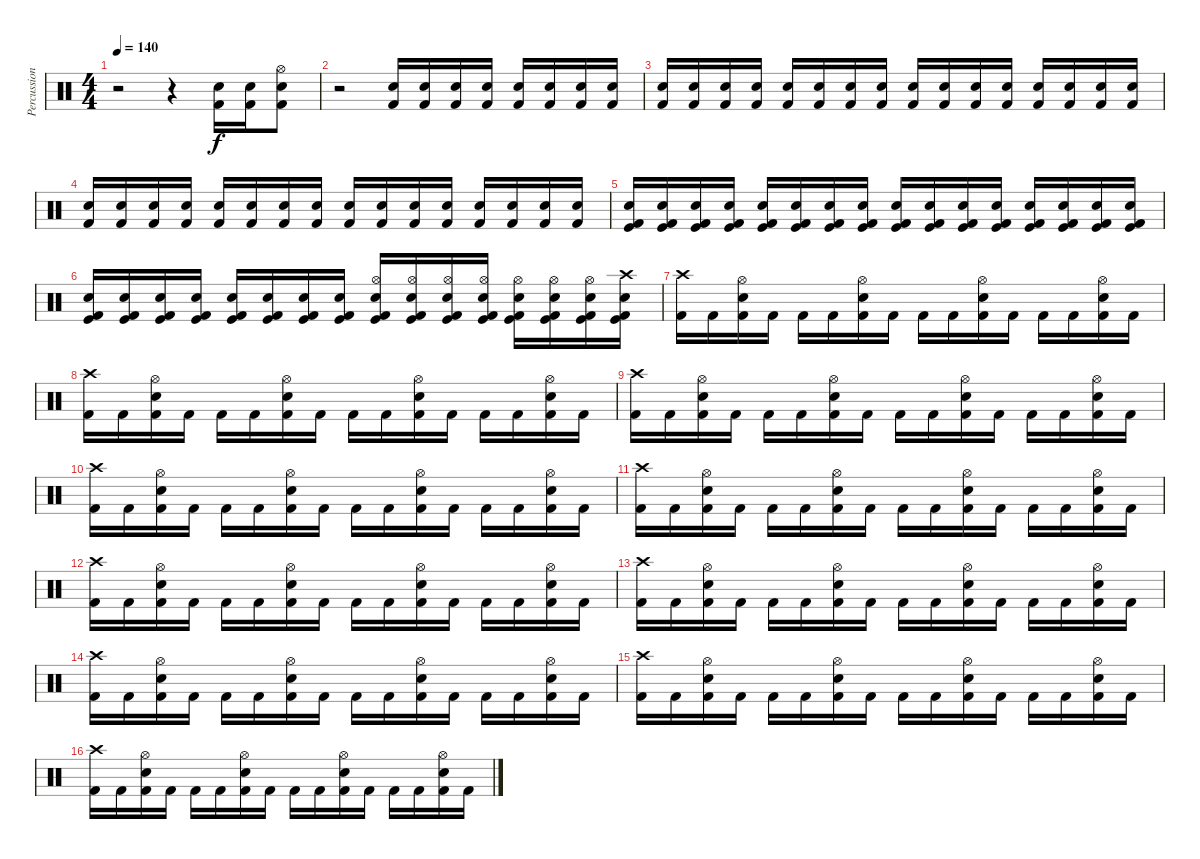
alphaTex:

\track ("Percussion" "Percussion") {instrument percussion}
\staff {score}
\articulation defaults
\ts (4 4)
\tempo 140
\clef neutral
\ks c
r.2{dy f} r.4 ("Electric Snare (hit)" "Kick (hit) 2").16 ("Electric Snare (hit)" "Kick (hit) 2").16 ("Hi-Hat (open)" "Electric Snare (hit)" "Kick (hit) 2").8 |
r.2 ("Electric Snare (hit)" "Kick (hit) 2").16 ("Electric Snare (hit)" "Kick (hit) 2").16 ("Electric Snare (hit)" "Kick (hit) 2").16 ("Electric Snare (hit)" "Kick (hit) 2").16 ("Electric Snare (hit)" "Kick (hit) 2").16 ("Electric Snare (hit)" "Kick (hit) 2").16 ("Electric Snare (hit)" "Kick (hit) 2").16 ("Electric Snare (hit)" "Kick (hit) 2").16 |
("Electric Snare (hit)" "Kick (hit) 2").16 ("Electric Snare (hit)" "Kick (hit) 2").16 ("Electric Snare (hit)" "Kick (hit) 2").16 ("Electric Snare (hit)" "Kick (hit) 2").16 ("Electric Snare (hit)" "Kick (hit) 2").16 ("Electric Snare (hit)" "Kick (hit) 2").16 ("Electric Snare (hit)" "Kick (hit) 2").16 ("Electric Snare (hit)" "Kick (hit) 2").16 ("Electric Snare (hit)" "Kick (hit) 2").16 ("Electric Snare (hit)" "Kick (hit) 2").16 ("Electric Snare (hit)" "Kick (hit) 2").16 ("Electric Snare (hit)" "Kick (hit) 2").16 ("Electric Snare (hit)" "Kick (hit) 2").16 ("Electric Snare (hit)" "Kick (hit) 2").16 ("Electric Snare (hit)" "Kick (hit) 2").16 ("Electric Snare (hit)" "Kick (hit) 2").16 |
("Electric Snare (hit)" "Kick (hit) 2").16 ("Electric Snare (hit)" "Kick (hit) 2").16 ("Electric Snare (hit)" "Kick (hit) 2").16 ("Electric Snare (hit)" "Kick (hit) 2").16 ("Electric Snare (hit)" "Kick (hit) 2").16 ("Electric Snare (hit)" "Kick (hit) 2").16 ("Electric Snare (hit)" "Kick (hit) 2").16 ("Electric Snare (hit)" "Kick (hit) 2").16 ("Electric Snare (hit)" "Kick (hit) 2").16 ("Electric Snare (hit)" "Kick (hit) 2").16 ("Electric Snare (hit)" "Kick (hit) 2").16 ("Electric Snare (hit)" "Kick (hit) 2").16 ("Electric Snare (hit)" "Kick (hit) 2").16 ("Electric Snare (hit)" "Kick (hit) 2").16 ("Electric Snare (hit)" "Kick (hit) 2").16 ("Electric Snare (hit)" "Kick (hit) 2").16 |
("Kick (hit)" "Electric Snare (hit)" "Kick (hit) 2").16 ("Kick (hit)" "Electric Snare (hit)" "Kick (hit) 2").16 ("Kick (hit)" "Electric Snare (hit)" "Kick (hit) 2").16 ("Kick (hit)" "Electric Snare (hit)" "Kick (hit) 2").16 ("Kick (hit)" "Electric Snare (hit)" "Kick (hit) 2").16 ("Kick (hit)" "Electric Snare (hit)" "Kick (hit) 2").16 ("Kick (hit)" "Electric Snare (hit)" "Kick (hit) 2").16 ("Kick (hit)" "Electric Snare (hit)" "Kick (hit) 2").16 ("Kick (hit)" "Electric Snare (hit)" "Kick (hit) 2").16 ("Kick (hit)" "Electric Snare (hit)" "Kick (hit) 2").16 ("Kick (hit)" "Electric Snare (hit)" "Kick (hit) 2").16 ("Kick (hit)" "Electric Snare (hit)" "Kick (hit) 2").16 ("Kick (hit)" "Electric Snare (hit)" "Kick (hit) 2").16 ("Kick (hit)" "Electric Snare (hit)" "Kick (hit) 2").16 ("Kick (hit)" "Electric Snare (hit)" "Kick (hit) 2").16 ("Kick (hit)" "Electric Snare (hit)" "Kick (hit) 2").16 |
("Kick (hit)" "Electric Snare (hit)" "Kick (hit) 2").16 ("Kick (hit)" "Electric Snare (hit)" "Kick (hit) 2").16 ("Kick (hit)" "Electric Snare (hit)" "Kick (hit) 2").16 ("Kick (hit)" "Electric Snare (hit)" "Kick (hit) 2").16 ("Kick (hit)" "Electric Snare (hit)" "Kick (hit) 2").16 ("Kick (hit)" "Electric Snare (hit)" "Kick (hit) 2").16 ("Kick (hit)" "Electric Snare (hit)" "Kick (hit) 2").16 ("Kick (hit)" "Electric Snare (hit)" "Kick (hit) 2").16 ("Hi-Hat (open)" "Kick (hit)" "Electric Snare (hit)" "Kick (hit) 2").16 ("Hi-Hat (open)" "Kick (hit)" "Electric Snare (hit)" "Kick (hit) 2").16 ("Hi-Hat (open)" "Kick (hit)" "Electric Snare (hit)" "Kick (hit) 2").16 ("Hi-Hat (open)" "Kick (hit)" "Electric Snare (hit)" "Kick (hit) 2").16 ("Hi-Hat (open)" "Kick (hit)" "Electric Snare (hit)" "Kick (hit) 2").16 ("Hi-Hat (open)" "Kick (hit)" "Electric Snare (hit)" "Kick (hit) 2").16 ("Hi-Hat (open)" "Kick (hit)" "Electric Snare (hit)" "Kick (hit) 2").16 ("Crash high (hit)" "Kick (hit)" "Electric Snare (hit)" "Kick (hit) 2").16 |
("Crash high (hit)" "Kick (hit) 2").16 "Kick (hit) 2".16 ("Electric Snare (hit)" "Kick (hit) 2" "Hi-Hat (open)").16 "Kick (hit) 2".16 "Kick (hit) 2".16 "Kick (hit) 2".16 ("Electric Snare (hit)" "Kick (hit) 2" "Hi-Hat (open)").16 "Kick (hit) 2".16 "Kick (hit) 2".16 "Kick (hit) 2".16 ("Electric Snare (hit)" "Kick (hit) 2" "Hi-Hat (open)").16 "Kick (hit) 2".16 "Kick (hit) 2".16 "Kick (hit) 2".16 ("Hi-Hat (open)" "Electric Snare (hit)" "Kick (hit) 2").16 "Kick (hit) 2".16 |
("Crash high (hit)" "Kick (hit) 2").16 "Kick (hit) 2".16 ("Electric Snare (hit)" "Kick (hit) 2" "Hi-Hat (open)").16 "Kick (hit) 2".16 "Kick (hit) 2".16 "Kick (hit) 2".16 ("Electric Snare (hit)" "Kick (hit) 2" "Hi-Hat (open)").16 "Kick (hit) 2".16 "Kick (hit) 2".16 "Kick (hit) 2".16 ("Electric Snare (hit)" "Kick (hit) 2" "Hi-Hat (open)").16 "Kick (hit) 2".16 "Kick (hit) 2".16 "Kick (hit) 2".16 ("Hi-Hat (open)" "Electric Snare (hit)" "Kick (hit) 2").16 "Kick (hit) 2".16 |
("Crash high (hit)" "Kick (hit) 2").16 "Kick (hit) 2".16 ("Electric Snare (hit)" "Kick (hit) 2" "Hi-Hat (open)").16 "Kick (hit) 2".16 "Kick (hit) 2".16 "Kick (hit) 2".16 ("Electric Snare (hit)" "Kick (hit) 2" "Hi-Hat (open)").16 "Kick (hit) 2".16 "Kick (hit) 2".16 "Kick (hit) 2".16 ("Electric Snare (hit)" "Kick (hit) 2" "Hi-Hat (open)").16 "Kick (hit) 2".16 "Kick (hit) 2".16 "Kick (hit) 2".16 ("Hi-Hat (open)" "Electric Snare (hit)" "Kick (hit) 2").16 "Kick (hit) 2".16 |
("Crash high (hit)" "Kick (hit) 2").16 "Kick (hit) 2".16 ("Electric Snare (hit)" "Kick (hit) 2" "Hi-Hat (open)").16 "Kick (hit) 2".16 "Kick (hit) 2".16 "Kick (hit) 2".16 ("Electric Snare (hit)" "Kick (hit) 2" "Hi-Hat (open)").16 "Kick (hit) 2".16 "Kick (hit) 2".16 "Kick (hit) 2".16 ("Electric Snare (hit)" "Kick (hit) 2" "Hi-Hat (open)").16 "Kick (hit) 2".16 "Kick (hit) 2".16 "Kick (hit) 2".16 ("Hi-Hat (open)" "Electric Snare (hit)" "Kick (hit) 2").16 "Kick (hit) 2".16 |
("Crash high (hit)" "Kick (hit) 2").16 "Kick (hit) 2".16 ("Electric Snare (hit)" "Kick (hit) 2" "Hi-Hat (open)").16 "Kick (hit) 2".16 "Kick (hit) 2".16 "Kick (hit) 2".16 ("Electric Snare (hit)" "Kick (hit) 2" "Hi-Hat (open)").16 "Kick (hit) 2".16 "Kick (hit) 2".16 "Kick (hit) 2".16 ("Electric Snare (hit)" "Kick (hit) 2" "Hi-Hat (open)").16 "Kick (hit) 2".16 "Kick (hit) 2".16 "Kick (hit) 2".16 ("Hi-Hat (open)" "Electric Snare (hit)" "Kick (hit) 2").16 "Kick (hit) 2".16 |
("Crash high (hit)" "Kick (hit) 2").16 "Kick (hit) 2".16 ("Electric Snare (hit)" "Kick (hit) 2" "Hi-Hat (open)").16 "Kick (hit) 2".16 "Kick (hit) 2".16 "Kick (hit) 2".16 ("Electric Snare (hit)" "Kick (hit) 2" "Hi-Hat (open)").16 "Kick (hit) 2".16 "Kick (hit) 2".16 "Kick (hit) 2".16 ("Electric Snare (hit)" "Kick (hit) 2" "Hi-Hat (open)").16 "Kick (hit) 2".16 "Kick (hit) 2".16 "Kick (hit) 2".16 ("Hi-Hat (open)" "Electric Snare (hit)" "Kick (hit) 2").16 "Kick (hit) 2".16 |
("Crash high (hit)" "Kick (hit) 2").16 "Kick (hit) 2".16 ("Electric Snare (hit)" "Kick (hit) 2" "Hi-Hat (open)").16 "Kick (hit) 2".16 "Kick (hit) 2".16 "Kick (hit) 2".16 ("Electric Snare (hit)" "Kick (hit) 2" "Hi-Hat (open)").16 "Kick (hit) 2".16 "Kick (hit) 2".16 "Kick (hit) 2".16 ("Electric Snare (hit)" "Kick (hit) 2" "Hi-Hat (open)").16 "Kick (hit) 2".16 "Kick (hit) 2".16 "Kick (hit) 2".16 ("Hi-Hat (open)" "Electric Snare (hit)" "Kick (hit) 2").16 "Kick (hit) 2".16 |
("Crash high (hit)" "Kick (hit) 2").16 "Kick (hit) 2".16 ("Electric Snare (hit)" "Kick (hit) 2" "Hi-Hat (open)").16 "Kick (hit) 2".16 "Kick (hit) 2".16 "Kick (hit) 2".16 ("Electric Snare (hit)" "Kick (hit) 2" "Hi-Hat (open)").16 "Kick (hit) 2".16 "Kick (hit) 2".16 "Kick (hit) 2".16 ("Electric Snare (hit)" "Kick (hit) 2" "Hi-Hat (open)").16 "Kick (hit) 2".16 "Kick (hit) 2".16 "Kick (hit) 2".16 ("Hi-Hat (open)" "Electric Snare (hit)" "Kick (hit) 2").16 "Kick (hit) 2".16 |
("Crash high (hit)" "Kick (hit) 2").16 "Kick (hit) 2".16 ("Electric Snare (hit)" "Kick (hit) 2" "Hi-Hat (open)").16 "Kick (hit) 2".16 "Kick (hit) 2".16 "Kick (hit) 2".16 ("Electric Snare (hit)" "Kick (hit) 2" "Hi-Hat (open)").16 "Kick (hit) 2".16 "Kick (hit) 2".16 "Kick (hit) 2".16 ("Electric Snare (hit)" "Kick (hit) 2" "Hi-Hat (open)").16 "Kick (hit) 2".16 "Kick (hit) 2".16 "Kick (hit) 2".16 ("Hi-Hat (open)" "Electric Snare (hit)" "Kick (hit) 2").16 "Kick (hit) 2".16 |
("Crash high (hit)" "Kick (hit) 2").16 "Kick (hit) 2".16 ("Electric Snare (hit)" "Kick (hit) 2" "Hi-Hat (open)").16 "Kick (hit) 2".16 "Kick (hit) 2".16 "Kick (hit) 2".16 ("Electric Snare (hit)" "Kick (hit) 2" "Hi-Hat (open)").16 "Kick (hit) 2".16 "Kick (hit) 2".16 "Kick (hit) 2".16 ("Electric Snare (hit)" "Kick (hit) 2" "Hi-Hat (open)").16 "Kick (hit) 2".16 "Kick (hit) 2".16 "Kick (hit) 2".16 ("Hi-Hat (open)" "Electric Snare (hit)" "Kick (hit) 2").16 "Kick (hit) 2".16
